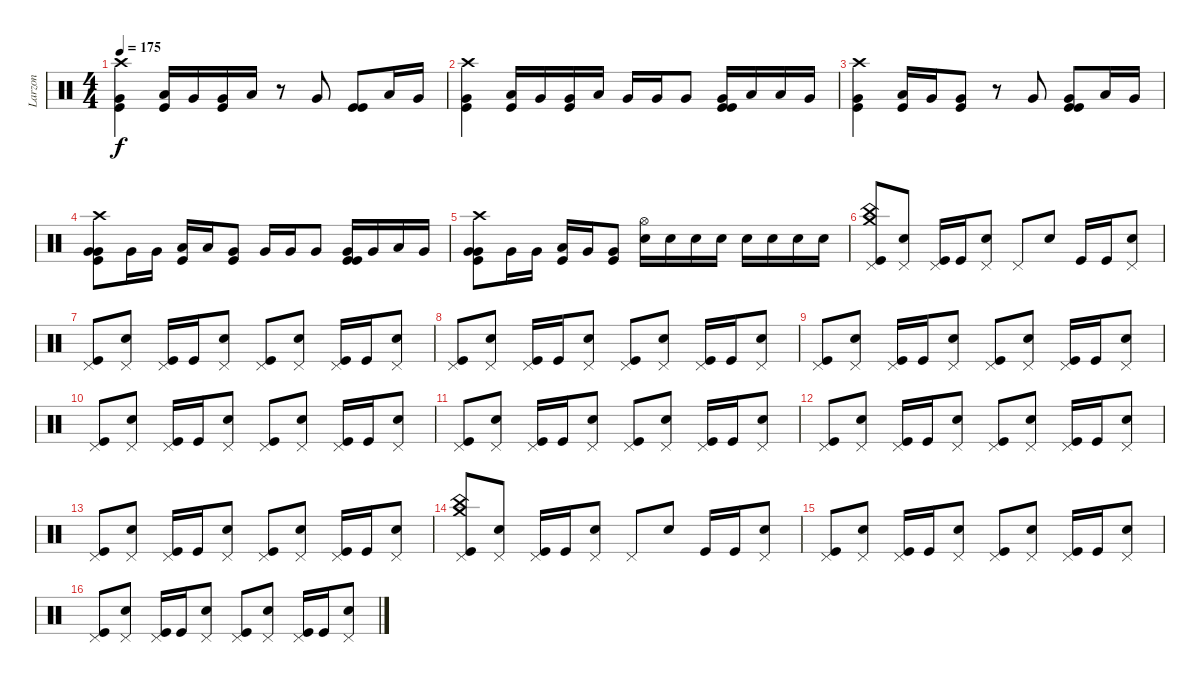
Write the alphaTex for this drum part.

\track ("Larzon" "Larzon") {instrument percussion}
\staff {score}
\articulation defaults
\ts (4 4)
\tempo 175
\clef neutral
\ks c
("Crash high (hit)" "Very Low Tom (hit)" "Kick (hit)").4{dy f} ("Kick (hit)" "Low Tom (hit)").16 "Very Low Tom (hit)".16 ("Kick (hit)" "Very Low Tom (hit)").16 "Low Tom (hit)".16 r.8 "Very Low Tom (hit)".8 ("Kick (hit)" "Kick (hit)").8 "Low Tom (hit)".16 "Very Low Tom (hit)".16 |
("Very Low Tom (hit)" "Crash high (hit)" "Kick (hit)").4 ("Kick (hit)" "Low Tom (hit)").16 "Very Low Tom (hit)".16 ("Kick (hit)" "Very Low Tom (hit)").16 "Low Tom (hit)".16 "Very Low Tom (hit)".16 "Very Low Tom (hit)".16 "Very Low Tom (hit)".8 ("Kick (hit)" "Kick (hit)" "Very Low Tom (hit)").16 "Low Tom (hit)".16 "Low Tom (hit)".16 "Very Low Tom (hit)".16 |
("Crash high (hit)" "Very Low Tom (hit)" "Kick (hit)").4 ("Kick (hit)" "Low Tom (hit)").16 "Very Low Tom (hit)".16 ("Kick (hit)" "Very Low Tom (hit)").8 r.8 "Very Low Tom (hit)".8 ("Kick (hit)" "Kick (hit)" "Very Low Tom (hit)").8 "Low Tom (hit)".16 "Very Low Tom (hit)".16 |
("Very Low Tom (hit)" "Crash high (hit)" "Kick (hit)" "Very Low Tom (hit)").8 "Very Low Tom (hit)".16 "Very Low Tom (hit)".16 ("Kick (hit)" "Low Tom (hit)").16 "Low Tom (hit)".16 ("Kick (hit)" "Very Low Tom (hit)").8 "Very Low Tom (hit)".16 "Very Low Tom (hit)".16 "Very Low Tom (hit)".8 ("Kick (hit)" "Kick (hit)" "Very Low Tom (hit)").16 "Very Low Tom (hit)".16 "Low Tom (hit)".16 "Very Low Tom (hit)".16 |
("Crash high (hit)" "Very Low Tom (hit)" "Kick (hit)" "Very Low Tom (hit)").8 "Very Low Tom (hit)".16 "Very Low Tom (hit)".16 ("Kick (hit)" "Low Tom (hit)").16 "Very Low Tom (hit)".16 ("Kick (hit)" "Very Low Tom (hit)").8 ("Snare (hit) 2" "Hi-Hat (open)").16 "Snare (hit) 2".16 "Snare (hit) 2".16 "Snare (hit) 2".16 "Snare (hit) 2".16 "Snare (hit) 2".16 "Snare (hit) 2".16 "Snare (hit) 2".16 |
("China (hit)" "Crash medium (hit)" "Pedal Hi-Hat (hit)" "Kick (hit)").8 ("Snare (hit) 2" "Pedal Hi-Hat (hit)").8 ("Kick (hit)" "Pedal Hi-Hat (hit)").16 "Kick (hit)".16 ("Snare (hit) 2" "Pedal Hi-Hat (hit)").8 "Pedal Hi-Hat (hit)".8 "Snare (hit) 2".8 "Kick (hit)".16 "Kick (hit)".16 ("Snare (hit) 2" "Pedal Hi-Hat (hit)").8 |
("Kick (hit)" "Pedal Hi-Hat (hit)").8 ("Snare (hit) 2" "Pedal Hi-Hat (hit)").8 ("Kick (hit)" "Pedal Hi-Hat (hit)").16 "Kick (hit)".16 ("Snare (hit) 2" "Pedal Hi-Hat (hit)").8 ("Pedal Hi-Hat (hit)" "Kick (hit)").8 ("Snare (hit) 2" "Pedal Hi-Hat (hit)").8 ("Kick (hit)" "Pedal Hi-Hat (hit)").16 "Kick (hit)".16 ("Snare (hit) 2" "Pedal Hi-Hat (hit)").8 |
("Kick (hit)" "Pedal Hi-Hat (hit)").8 ("Snare (hit) 2" "Pedal Hi-Hat (hit)").8 ("Kick (hit)" "Pedal Hi-Hat (hit)").16 "Kick (hit)".16 ("Snare (hit) 2" "Pedal Hi-Hat (hit)").8 ("Pedal Hi-Hat (hit)" "Kick (hit)").8 ("Snare (hit) 2" "Pedal Hi-Hat (hit)").8 ("Kick (hit)" "Pedal Hi-Hat (hit)").16 "Kick (hit)".16 ("Snare (hit) 2" "Pedal Hi-Hat (hit)").8 |
("Kick (hit)" "Pedal Hi-Hat (hit)").8 ("Snare (hit) 2" "Pedal Hi-Hat (hit)").8 ("Kick (hit)" "Pedal Hi-Hat (hit)").16 "Kick (hit)".16 ("Snare (hit) 2" "Pedal Hi-Hat (hit)").8 ("Pedal Hi-Hat (hit)" "Kick (hit)").8 ("Snare (hit) 2" "Pedal Hi-Hat (hit)").8 ("Kick (hit)" "Pedal Hi-Hat (hit)").16 "Kick (hit)".16 ("Snare (hit) 2" "Pedal Hi-Hat (hit)").8 |
("Kick (hit)" "Pedal Hi-Hat (hit)").8 ("Snare (hit) 2" "Pedal Hi-Hat (hit)").8 ("Kick (hit)" "Pedal Hi-Hat (hit)").16 "Kick (hit)".16 ("Snare (hit) 2" "Pedal Hi-Hat (hit)").8 ("Pedal Hi-Hat (hit)" "Kick (hit)").8 ("Snare (hit) 2" "Pedal Hi-Hat (hit)").8 ("Kick (hit)" "Pedal Hi-Hat (hit)").16 "Kick (hit)".16 ("Snare (hit) 2" "Pedal Hi-Hat (hit)").8 |
("Kick (hit)" "Pedal Hi-Hat (hit)").8 ("Snare (hit) 2" "Pedal Hi-Hat (hit)").8 ("Kick (hit)" "Pedal Hi-Hat (hit)").16 "Kick (hit)".16 ("Snare (hit) 2" "Pedal Hi-Hat (hit)").8 ("Pedal Hi-Hat (hit)" "Kick (hit)").8 ("Snare (hit) 2" "Pedal Hi-Hat (hit)").8 ("Kick (hit)" "Pedal Hi-Hat (hit)").16 "Kick (hit)".16 ("Snare (hit) 2" "Pedal Hi-Hat (hit)").8 |
("Kick (hit)" "Pedal Hi-Hat (hit)").8 ("Snare (hit) 2" "Pedal Hi-Hat (hit)").8 ("Kick (hit)" "Pedal Hi-Hat (hit)").16 "Kick (hit)".16 ("Snare (hit) 2" "Pedal Hi-Hat (hit)").8 ("Pedal Hi-Hat (hit)" "Kick (hit)").8 ("Snare (hit) 2" "Pedal Hi-Hat (hit)").8 ("Kick (hit)" "Pedal Hi-Hat (hit)").16 "Kick (hit)".16 ("Snare (hit) 2" "Pedal Hi-Hat (hit)").8 |
("Kick (hit)" "Pedal Hi-Hat (hit)").8 ("Snare (hit) 2" "Pedal Hi-Hat (hit)").8 ("Kick (hit)" "Pedal Hi-Hat (hit)").16 "Kick (hit)".16 ("Snare (hit) 2" "Pedal Hi-Hat (hit)").8 ("Pedal Hi-Hat (hit)" "Kick (hit)").8 ("Snare (hit) 2" "Pedal Hi-Hat (hit)").8 ("Kick (hit)" "Pedal Hi-Hat (hit)").16 "Kick (hit)".16 ("Snare (hit) 2" "Pedal Hi-Hat (hit)").8 |
("China (hit)" "Crash medium (hit)" "Pedal Hi-Hat (hit)" "Kick (hit)").8 ("Snare (hit) 2" "Pedal Hi-Hat (hit)").8 ("Kick (hit)" "Pedal Hi-Hat (hit)").16 "Kick (hit)".16 ("Snare (hit) 2" "Pedal Hi-Hat (hit)").8 "Pedal Hi-Hat (hit)".8 "Snare (hit) 2".8 "Kick (hit)".16 "Kick (hit)".16 ("Snare (hit) 2" "Pedal Hi-Hat (hit)").8 |
("Kick (hit)" "Pedal Hi-Hat (hit)").8 ("Snare (hit) 2" "Pedal Hi-Hat (hit)").8 ("Kick (hit)" "Pedal Hi-Hat (hit)").16 "Kick (hit)".16 ("Snare (hit) 2" "Pedal Hi-Hat (hit)").8 ("Pedal Hi-Hat (hit)" "Kick (hit)").8 ("Snare (hit) 2" "Pedal Hi-Hat (hit)").8 ("Kick (hit)" "Pedal Hi-Hat (hit)").16 "Kick (hit)".16 ("Snare (hit) 2" "Pedal Hi-Hat (hit)").8 |
("Kick (hit)" "Pedal Hi-Hat (hit)").8 ("Snare (hit) 2" "Pedal Hi-Hat (hit)").8 ("Kick (hit)" "Pedal Hi-Hat (hit)").16 "Kick (hit)".16 ("Snare (hit) 2" "Pedal Hi-Hat (hit)").8 ("Pedal Hi-Hat (hit)" "Kick (hit)").8 ("Snare (hit) 2" "Pedal Hi-Hat (hit)").8 ("Kick (hit)" "Pedal Hi-Hat (hit)").16 "Kick (hit)".16 ("Snare (hit) 2" "Pedal Hi-Hat (hit)").8
